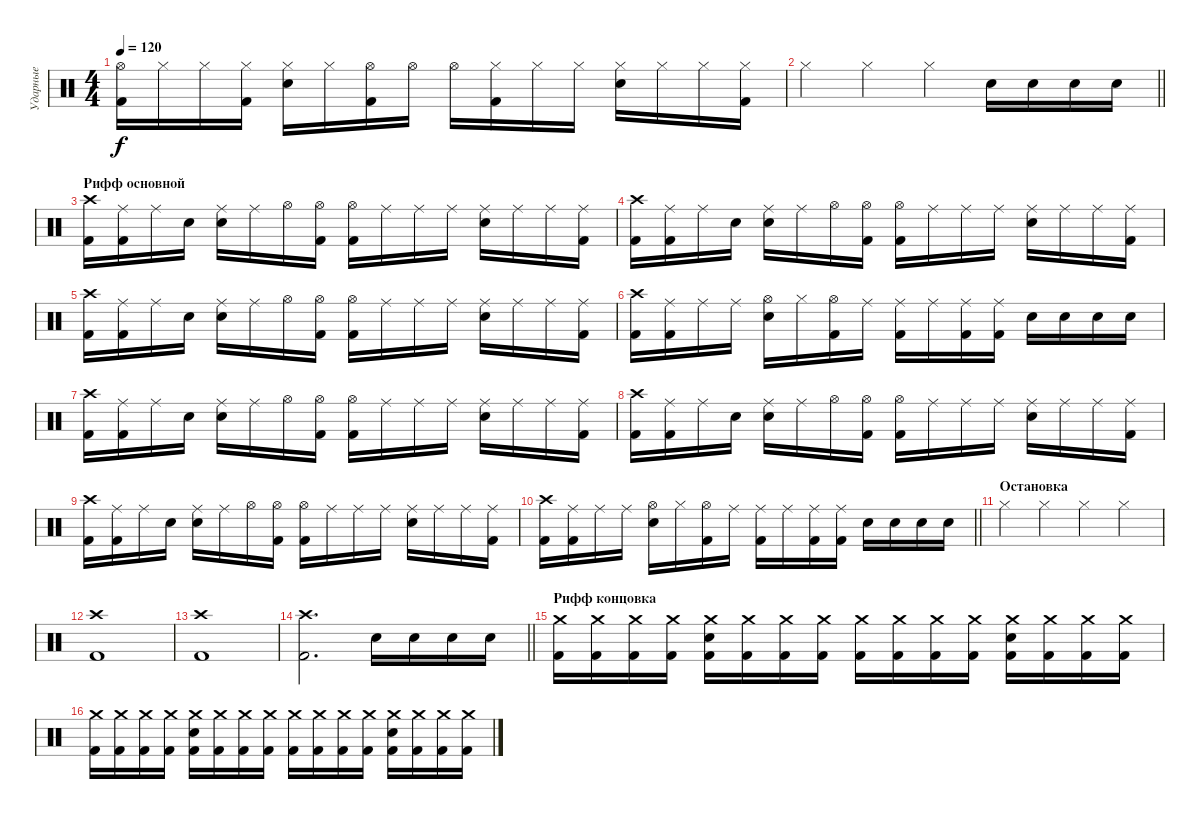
\track ("Ударные" "Ударные") {instrument percussion}
\staff {score}
\articulation defaults
\ts (4 4)
\tempo 120
\clef neutral
\ks c
("Kick (hit) 2" "Hi-Hat (open)").16{dy f} "Hi-Hat (closed)".16 "Hi-Hat (closed)".16 ("Kick (hit) 2" "Hi-Hat (closed)").16 ("Electric Snare (hit)" "Hi-Hat (closed)").16 "Hi-Hat (closed)".16 ("Kick (hit) 2" "Hi-Hat (open)").16 "Hi-Hat (open)".16 "Hi-Hat (open)".16 ("Kick (hit) 2" "Hi-Hat (closed)").16 "Hi-Hat (closed)".16 "Hi-Hat (closed)".16 ("Electric Snare (hit)" "Hi-Hat (closed)").16 "Hi-Hat (closed)".16 "Hi-Hat (closed)".16 ("Kick (hit) 2" "Hi-Hat (closed)").16 |
\barLineRight lightlight "Hi-Hat (closed)".4 "Hi-Hat (closed)".4 "Hi-Hat (closed)".4 "Electric Snare (hit)".16 "Electric Snare (hit)".16 "Electric Snare (hit)".16 "Electric Snare (hit)".16
|
\section ("" "Рифф основной")
("Kick (hit) 2" "Crash high (hit)").16 ("Kick (hit) 2" "Ride (middle)").16 "Ride (middle)".16 "Snare (hit)".16 ("Electric Snare (hit)" "Ride (middle)").16 "Ride (middle)".16 "Hi-Hat (open)".16 ("Kick (hit) 2" "Hi-Hat (open)").16 ("Kick (hit) 2" "Hi-Hat (open)").16 "Ride (middle)".16 "Ride (middle)".16 "Ride (middle)".16 ("Electric Snare (hit)" "Ride (middle)").16 "Ride (middle)".16 "Ride (middle)".16 ("Kick (hit) 2" "Ride (middle)").16 |
("Kick (hit) 2" "Crash high (hit)").16 ("Kick (hit) 2" "Ride (middle)").16 "Ride (middle)".16 "Snare (hit)".16 ("Electric Snare (hit)" "Ride (middle)").16 "Ride (middle)".16 "Hi-Hat (open)".16 ("Kick (hit) 2" "Hi-Hat (open)").16 ("Kick (hit) 2" "Hi-Hat (open)").16 "Ride (middle)".16 "Ride (middle)".16 "Ride (middle)".16 ("Electric Snare (hit)" "Ride (middle)").16 "Ride (middle)".16 "Ride (middle)".16 ("Kick (hit) 2" "Ride (middle)").16 |
("Kick (hit) 2" "Crash high (hit)").16 ("Kick (hit) 2" "Ride (middle)").16 "Ride (middle)".16 "Snare (hit)".16 ("Electric Snare (hit)" "Ride (middle)").16 "Ride (middle)".16 "Hi-Hat (open)".16 ("Kick (hit) 2" "Hi-Hat (open)").16 ("Kick (hit) 2" "Hi-Hat (open)").16 "Ride (middle)".16 "Ride (middle)".16 "Ride (middle)".16 ("Electric Snare (hit)" "Ride (middle)").16 "Ride (middle)".16 "Ride (middle)".16 ("Kick (hit) 2" "Ride (middle)").16 |
("Kick (hit) 2" "Crash high (hit)").16 ("Kick (hit) 2" "Ride (middle)").16 "Ride (middle)".16 "Ride (middle)".16 ("Electric Snare (hit)" "Hi-Hat (open)").16 "Hi-Hat (closed)".16 ("Kick (hit) 2" "Hi-Hat (open)").16 "Ride (middle)".16 ("Kick (hit) 2" "Ride (middle)").16 "Ride (middle)".16 ("Kick (hit) 2" "Ride (middle)").16 ("Kick (hit) 2" "Ride (middle)").16 "Electric Snare (hit)".16 "Electric Snare (hit)".16 "Electric Snare (hit)".16 "Electric Snare (hit)".16 |
("Kick (hit) 2" "Crash high (hit)").16 ("Kick (hit) 2" "Ride (middle)").16 "Ride (middle)".16 "Snare (hit)".16 ("Electric Snare (hit)" "Ride (middle)").16 "Ride (middle)".16 "Hi-Hat (open)".16 ("Kick (hit) 2" "Hi-Hat (open)").16 ("Kick (hit) 2" "Hi-Hat (open)").16 "Ride (middle)".16 "Ride (middle)".16 "Ride (middle)".16 ("Electric Snare (hit)" "Ride (middle)").16 "Ride (middle)".16 "Ride (middle)".16 ("Kick (hit) 2" "Ride (middle)").16 |
("Kick (hit) 2" "Crash high (hit)").16 ("Kick (hit) 2" "Ride (middle)").16 "Ride (middle)".16 "Snare (hit)".16 ("Electric Snare (hit)" "Ride (middle)").16 "Ride (middle)".16 "Hi-Hat (open)".16 ("Kick (hit) 2" "Hi-Hat (open)").16 ("Kick (hit) 2" "Hi-Hat (open)").16 "Ride (middle)".16 "Ride (middle)".16 "Ride (middle)".16 ("Electric Snare (hit)" "Ride (middle)").16 "Ride (middle)".16 "Ride (middle)".16 ("Kick (hit) 2" "Ride (middle)").16 |
("Kick (hit) 2" "Crash high (hit)").16 ("Kick (hit) 2" "Ride (middle)").16 "Ride (middle)".16 "Snare (hit)".16 ("Electric Snare (hit)" "Ride (middle)").16 "Ride (middle)".16 "Hi-Hat (open)".16 ("Kick (hit) 2" "Hi-Hat (open)").16 ("Kick (hit) 2" "Hi-Hat (open)").16 "Ride (middle)".16 "Ride (middle)".16 "Ride (middle)".16 ("Electric Snare (hit)" "Ride (middle)").16 "Ride (middle)".16 "Ride (middle)".16 ("Kick (hit) 2" "Ride (middle)").16 |
\barLineRight lightlight
("Kick (hit) 2" "Crash high (hit)").16 ("Kick (hit) 2" "Ride (middle)").16 "Ride (middle)".16 "Ride (middle)".16 ("Electric Snare (hit)" "Hi-Hat (open)").16 "Hi-Hat (closed)".16 ("Kick (hit) 2" "Hi-Hat (open)").16 "Ride (middle)".16 ("Kick (hit) 2" "Ride (middle)").16 "Ride (middle)".16 ("Kick (hit) 2" "Ride (middle)").16 ("Kick (hit) 2" "Ride (middle)").16 "Electric Snare (hit)".16 "Electric Snare (hit)".16 "Electric Snare (hit)".16 "Electric Snare (hit)".16 |
\section ("" "Остановка")
"Hi-Hat (closed)".4 "Hi-Hat (closed)".4 "Hi-Hat (closed)".4 "Hi-Hat (closed)".4 |
("Crash high (hit)" "Kick (hit) 2").1 |
("Crash high (hit)" "Kick (hit) 2").1 |
\barLineRight lightlight
("Crash high (hit)" "Kick (hit) 2").2{d} "Electric Snare (hit)".16 "Electric Snare (hit)".16 "Electric Snare (hit)".16 "Electric Snare (hit)".16 |
\section ("" "Рифф концовка")
("Kick (hit) 2" "Crash medium (hit)").16 ("Kick (hit) 2" "Crash medium (hit)").16 ("Kick (hit) 2" "Crash medium (hit)").16 ("Kick (hit) 2" "Crash medium (hit)").16 ("Kick (hit) 2" "Electric Snare (hit)" "Crash medium (hit)").16 ("Kick (hit) 2" "Crash medium (hit)").16 ("Kick (hit) 2" "Crash medium (hit)").16 ("Kick (hit) 2" "Crash medium (hit)").16 ("Kick (hit) 2" "Crash medium (hit)").16 ("Kick (hit) 2" "Crash medium (hit)").16 ("Kick (hit) 2" "Crash medium (hit)").16 ("Kick (hit) 2" "Crash medium (hit)").16 ("Kick (hit) 2" "Electric Snare (hit)" "Crash medium (hit)").16 ("Kick (hit) 2" "Crash medium (hit)").16 ("Kick (hit) 2" "Crash medium (hit)").16 ("Kick (hit) 2" "Crash medium (hit)").16 |
("Kick (hit) 2" "Crash medium (hit)").16 ("Kick (hit) 2" "Crash medium (hit)").16 ("Kick (hit) 2" "Crash medium (hit)").16 ("Kick (hit) 2" "Crash medium (hit)").16 ("Kick (hit) 2" "Electric Snare (hit)" "Crash medium (hit)").16 ("Kick (hit) 2" "Crash medium (hit)").16 ("Kick (hit) 2" "Crash medium (hit)").16 ("Kick (hit) 2" "Crash medium (hit)").16 ("Kick (hit) 2" "Crash medium (hit)").16 ("Kick (hit) 2" "Crash medium (hit)").16 ("Kick (hit) 2" "Crash medium (hit)").16 ("Kick (hit) 2" "Crash medium (hit)").16 ("Kick (hit) 2" "Electric Snare (hit)" "Crash medium (hit)").16 ("Kick (hit) 2" "Crash medium (hit)").16 ("Kick (hit) 2" "Crash medium (hit)").16 ("Kick (hit) 2" "Crash medium (hit)").16
